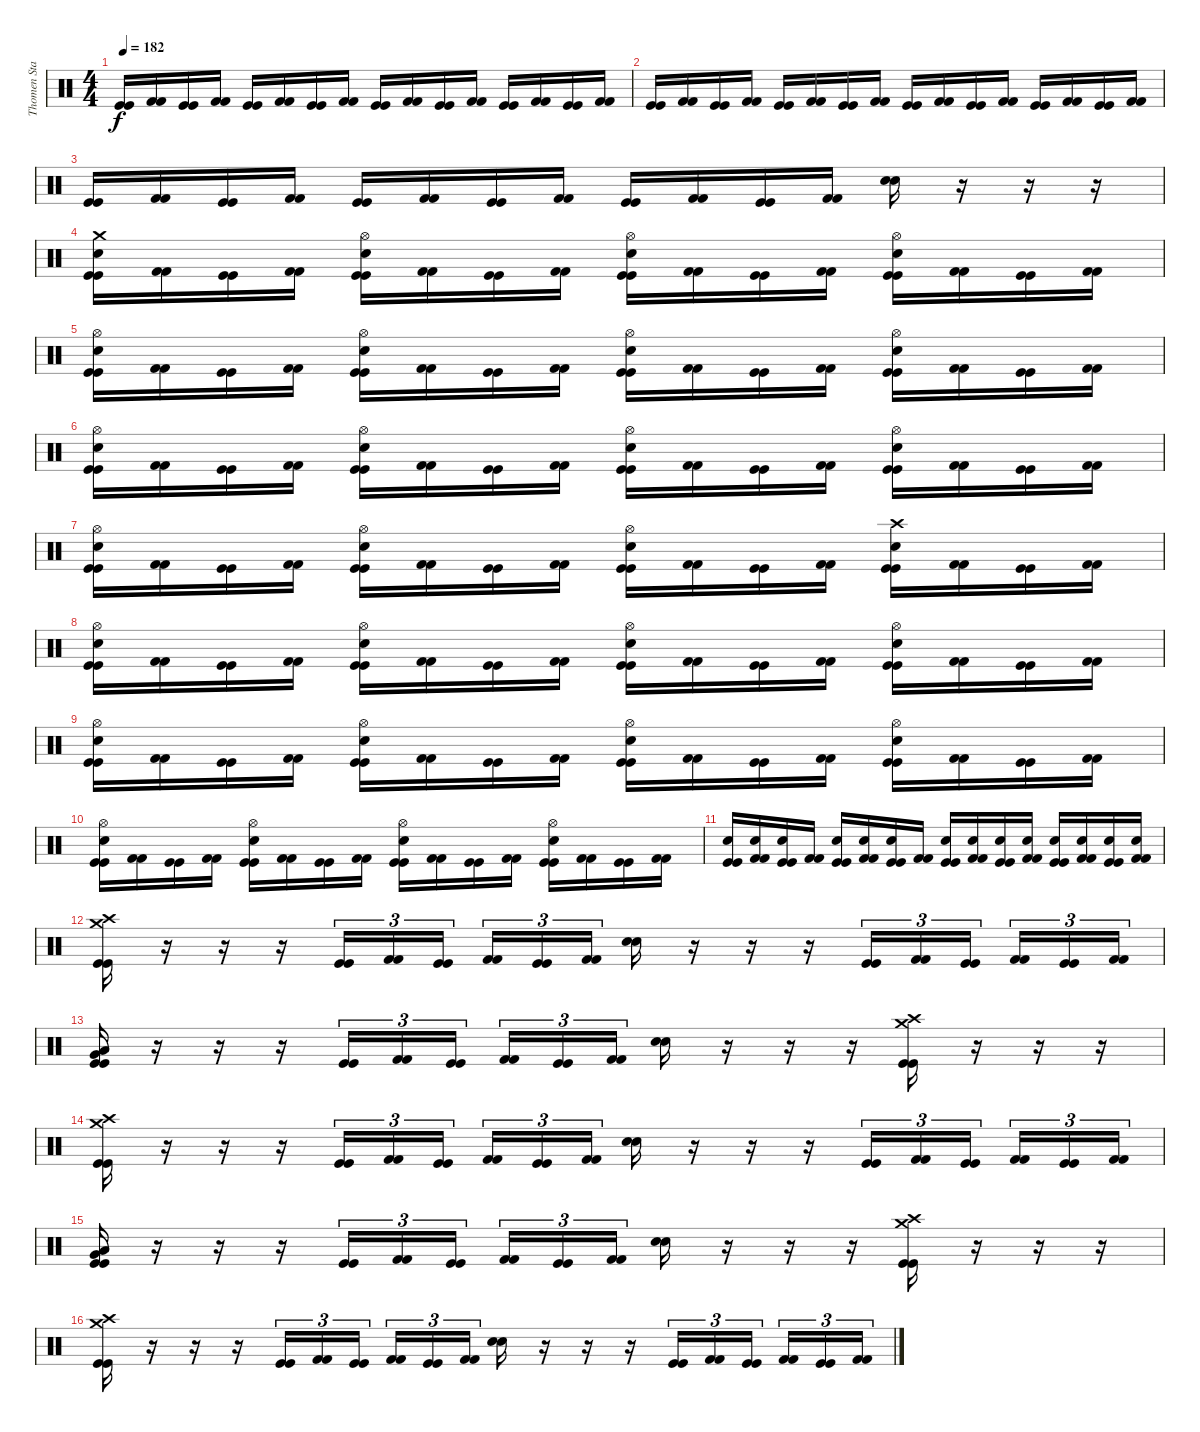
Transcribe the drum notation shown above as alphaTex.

\track ("Thomen Stauch" "Thomen Sta") {instrument percussion}
\staff {score}
\articulation defaults
\ts (4 4)
\tempo 182
\clef neutral
\ks c
("Kick (hit)" "Kick (hit)").16{dy f} ("Kick (hit) 2" "Kick (hit) 2").16 ("Kick (hit)" "Kick (hit)").16 ("Kick (hit) 2" "Kick (hit) 2").16 ("Kick (hit)" "Kick (hit)").16 ("Kick (hit) 2" "Kick (hit) 2").16 ("Kick (hit)" "Kick (hit)").16 ("Kick (hit) 2" "Kick (hit) 2").16 ("Kick (hit)" "Kick (hit)").16 ("Kick (hit) 2" "Kick (hit) 2").16 ("Kick (hit)" "Kick (hit)").16 ("Kick (hit) 2" "Kick (hit) 2").16 ("Kick (hit)" "Kick (hit)").16 ("Kick (hit) 2" "Kick (hit) 2").16 ("Kick (hit)" "Kick (hit)").16 ("Kick (hit) 2" "Kick (hit) 2").16 |
("Kick (hit)" "Kick (hit)").16 ("Kick (hit) 2" "Kick (hit) 2").16 ("Kick (hit)" "Kick (hit)").16 ("Kick (hit) 2" "Kick (hit) 2").16 ("Kick (hit)" "Kick (hit)").16 ("Kick (hit) 2" "Kick (hit) 2").16 ("Kick (hit)" "Kick (hit)").16 ("Kick (hit) 2" "Kick (hit) 2").16 ("Kick (hit)" "Kick (hit)").16 ("Kick (hit) 2" "Kick (hit) 2").16 ("Kick (hit)" "Kick (hit)").16 ("Kick (hit) 2" "Kick (hit) 2").16 ("Kick (hit)" "Kick (hit)").16 ("Kick (hit) 2" "Kick (hit) 2").16 ("Kick (hit)" "Kick (hit)").16 ("Kick (hit) 2" "Kick (hit) 2").16 |
("Kick (hit)" "Kick (hit)").16 ("Kick (hit) 2" "Kick (hit) 2").16 ("Kick (hit)" "Kick (hit)").16 ("Kick (hit) 2" "Kick (hit) 2").16 ("Kick (hit)" "Kick (hit)").16 ("Kick (hit) 2" "Kick (hit) 2").16 ("Kick (hit)" "Kick (hit)").16 ("Kick (hit) 2" "Kick (hit) 2").16 ("Kick (hit)" "Kick (hit)").16 ("Kick (hit) 2" "Kick (hit) 2").16 ("Kick (hit)" "Kick (hit)").16 ("Kick (hit) 2" "Kick (hit) 2").16 ("Snare (hit) 2" "Snare (hit) 2").16 r.16 r.16 r.16 |
("Crash medium (hit)" "Snare (hit) 2" "Kick (hit)" "Kick (hit)").16 ("Kick (hit) 2" "Kick (hit) 2").16 ("Kick (hit)" "Kick (hit)").16 ("Kick (hit) 2" "Kick (hit) 2").16 ("Hi-Hat (open)" "Snare (hit) 2" "Kick (hit)" "Kick (hit)").16 ("Kick (hit) 2" "Kick (hit) 2").16 ("Kick (hit)" "Kick (hit)").16 ("Kick (hit) 2" "Kick (hit) 2").16 ("Hi-Hat (open)" "Snare (hit) 2" "Kick (hit)" "Kick (hit)").16 ("Kick (hit) 2" "Kick (hit) 2").16 ("Kick (hit)" "Kick (hit)").16 ("Kick (hit) 2" "Kick (hit) 2").16 ("Hi-Hat (open)" "Snare (hit) 2" "Kick (hit)" "Kick (hit)").16 ("Kick (hit) 2" "Kick (hit) 2").16 ("Kick (hit)" "Kick (hit)").16 ("Kick (hit) 2" "Kick (hit) 2").16 |
("Hi-Hat (open)" "Snare (hit) 2" "Kick (hit)" "Kick (hit)").16 ("Kick (hit) 2" "Kick (hit) 2").16 ("Kick (hit)" "Kick (hit)").16 ("Kick (hit) 2" "Kick (hit) 2").16 ("Hi-Hat (open)" "Snare (hit) 2" "Kick (hit)" "Kick (hit)").16 ("Kick (hit) 2" "Kick (hit) 2").16 ("Kick (hit)" "Kick (hit)").16 ("Kick (hit) 2" "Kick (hit) 2").16 ("Hi-Hat (open)" "Snare (hit) 2" "Kick (hit)" "Kick (hit)").16 ("Kick (hit) 2" "Kick (hit) 2").16 ("Kick (hit)" "Kick (hit)").16 ("Kick (hit) 2" "Kick (hit) 2").16 ("Hi-Hat (open)" "Snare (hit) 2" "Kick (hit)" "Kick (hit)").16 ("Kick (hit) 2" "Kick (hit) 2").16 ("Kick (hit)" "Kick (hit)").16 ("Kick (hit) 2" "Kick (hit) 2").16 |
("Hi-Hat (open)" "Snare (hit) 2" "Kick (hit)" "Kick (hit)").16 ("Kick (hit) 2" "Kick (hit) 2").16 ("Kick (hit)" "Kick (hit)").16 ("Kick (hit) 2" "Kick (hit) 2").16 ("Hi-Hat (open)" "Snare (hit) 2" "Kick (hit)" "Kick (hit)").16 ("Kick (hit) 2" "Kick (hit) 2").16 ("Kick (hit)" "Kick (hit)").16 ("Kick (hit) 2" "Kick (hit) 2").16 ("Hi-Hat (open)" "Snare (hit) 2" "Kick (hit)" "Kick (hit)").16 ("Kick (hit) 2" "Kick (hit) 2").16 ("Kick (hit)" "Kick (hit)").16 ("Kick (hit) 2" "Kick (hit) 2").16 ("Hi-Hat (open)" "Snare (hit) 2" "Kick (hit)" "Kick (hit)").16 ("Kick (hit) 2" "Kick (hit) 2").16 ("Kick (hit)" "Kick (hit)").16 ("Kick (hit) 2" "Kick (hit) 2").16 |
("Hi-Hat (open)" "Snare (hit) 2" "Kick (hit)" "Kick (hit)").16 ("Kick (hit) 2" "Kick (hit) 2").16 ("Kick (hit)" "Kick (hit)").16 ("Kick (hit) 2" "Kick (hit) 2").16 ("Hi-Hat (open)" "Snare (hit) 2" "Kick (hit)" "Kick (hit)").16 ("Kick (hit) 2" "Kick (hit) 2").16 ("Kick (hit)" "Kick (hit)").16 ("Kick (hit) 2" "Kick (hit) 2").16 ("Hi-Hat (open)" "Snare (hit) 2" "Kick (hit)" "Kick (hit)").16 ("Kick (hit) 2" "Kick (hit) 2").16 ("Kick (hit)" "Kick (hit)").16 ("Kick (hit) 2" "Kick (hit) 2").16 ("Crash high (hit)" "Snare (hit) 2" "Kick (hit)" "Kick (hit)").16 ("Kick (hit) 2" "Kick (hit) 2").16 ("Kick (hit)" "Kick (hit)").16 ("Kick (hit) 2" "Kick (hit) 2").16 |
("Hi-Hat (open)" "Snare (hit) 2" "Kick (hit)" "Kick (hit)").16 ("Kick (hit) 2" "Kick (hit) 2").16 ("Kick (hit)" "Kick (hit)").16 ("Kick (hit) 2" "Kick (hit) 2").16 ("Hi-Hat (open)" "Snare (hit) 2" "Kick (hit)" "Kick (hit)").16 ("Kick (hit) 2" "Kick (hit) 2").16 ("Kick (hit)" "Kick (hit)").16 ("Kick (hit) 2" "Kick (hit) 2").16 ("Hi-Hat (open)" "Snare (hit) 2" "Kick (hit)" "Kick (hit)").16 ("Kick (hit) 2" "Kick (hit) 2").16 ("Kick (hit)" "Kick (hit)").16 ("Kick (hit) 2" "Kick (hit) 2").16 ("Hi-Hat (open)" "Snare (hit) 2" "Kick (hit)" "Kick (hit)").16 ("Kick (hit) 2" "Kick (hit) 2").16 ("Kick (hit)" "Kick (hit)").16 ("Kick (hit) 2" "Kick (hit) 2").16 |
("Hi-Hat (open)" "Snare (hit) 2" "Kick (hit)" "Kick (hit)").16 ("Kick (hit) 2" "Kick (hit) 2").16 ("Kick (hit)" "Kick (hit)").16 ("Kick (hit) 2" "Kick (hit) 2").16 ("Hi-Hat (open)" "Snare (hit) 2" "Kick (hit)" "Kick (hit)").16 ("Kick (hit) 2" "Kick (hit) 2").16 ("Kick (hit)" "Kick (hit)").16 ("Kick (hit) 2" "Kick (hit) 2").16 ("Hi-Hat (open)" "Snare (hit) 2" "Kick (hit)" "Kick (hit)").16 ("Kick (hit) 2" "Kick (hit) 2").16 ("Kick (hit)" "Kick (hit)").16 ("Kick (hit) 2" "Kick (hit) 2").16 ("Hi-Hat (open)" "Snare (hit) 2" "Kick (hit)" "Kick (hit)").16 ("Kick (hit) 2" "Kick (hit) 2").16 ("Kick (hit)" "Kick (hit)").16 ("Kick (hit) 2" "Kick (hit) 2").16 |
("Hi-Hat (open)" "Snare (hit) 2" "Kick (hit)" "Kick (hit)").16 ("Kick (hit) 2" "Kick (hit) 2").16 ("Kick (hit)" "Kick (hit)").16 ("Kick (hit) 2" "Kick (hit) 2").16 ("Hi-Hat (open)" "Snare (hit) 2" "Kick (hit)" "Kick (hit)").16 ("Kick (hit) 2" "Kick (hit) 2").16 ("Kick (hit)" "Kick (hit)").16 ("Kick (hit) 2" "Kick (hit) 2").16 ("Hi-Hat (open)" "Snare (hit) 2" "Kick (hit)" "Kick (hit)").16 ("Kick (hit) 2" "Kick (hit) 2").16 ("Kick (hit)" "Kick (hit)").16 ("Kick (hit) 2" "Kick (hit) 2").16 ("Hi-Hat (open)" "Snare (hit) 2" "Kick (hit)" "Kick (hit)").16 ("Kick (hit) 2" "Kick (hit) 2").16 ("Kick (hit)" "Kick (hit)").16 ("Kick (hit) 2" "Kick (hit) 2").16 |
("Snare (hit) 2" "Kick (hit)" "Kick (hit)").16 ("Snare (hit) 2" "Kick (hit) 2" "Kick (hit) 2").16 ("Snare (hit) 2" "Kick (hit)" "Kick (hit)").16 ("Kick (hit) 2" "Kick (hit) 2").16 ("Snare (hit) 2" "Kick (hit)" "Kick (hit)").16 ("Snare (hit) 2" "Kick (hit) 2" "Kick (hit) 2").16 ("Snare (hit) 2" "Kick (hit)" "Kick (hit)").16 ("Kick (hit) 2" "Kick (hit) 2").16 ("Snare (hit) 2" "Kick (hit)" "Kick (hit)").16 ("Snare (hit) 2" "Kick (hit) 2" "Kick (hit) 2").16 ("Snare (hit) 2" "Kick (hit)" "Kick (hit)").16 ("Snare (hit) 2" "Kick (hit) 2" "Kick (hit) 2").16 ("Snare (hit) 2" "Kick (hit)" "Kick (hit)").16 ("Snare (hit) 2" "Kick (hit) 2" "Kick (hit) 2").16 ("Snare (hit) 2" "Kick (hit)" "Kick (hit)").16 ("Snare (hit) 2" "Kick (hit) 2" "Kick (hit) 2").16 |
("Crash medium (hit)" "Crash high (hit)" "Kick (hit)" "Kick (hit)").16 r.16 r.16 r.16 ("Kick (hit)" "Kick (hit)").16{tu (3 2)} ("Kick (hit) 2" "Kick (hit) 2").16{tu (3 2)} ("Kick (hit)" "Kick (hit)").16{tu (3 2)} ("Kick (hit) 2" "Kick (hit) 2").16{tu (3 2)} ("Kick (hit)" "Kick (hit)").16{tu (3 2)} ("Kick (hit) 2" "Kick (hit) 2").16{tu (3 2)} ("Snare (hit) 2" "Snare (hit) 2").16 r.16 r.16 r.16 ("Kick (hit)" "Kick (hit)").16{tu (3 2)} ("Kick (hit) 2" "Kick (hit) 2").16{tu (3 2)} ("Kick (hit)" "Kick (hit)").16{tu (3 2)} ("Kick (hit) 2" "Kick (hit) 2").16{tu (3 2)} ("Kick (hit)" "Kick (hit)").16{tu (3 2)} ("Kick (hit) 2" "Kick (hit) 2").16{tu (3 2)} |
("Very Low Tom (hit)" "Low Tom (hit)" "Kick (hit)" "Kick (hit)").16 r.16 r.16 r.16 ("Kick (hit)" "Kick (hit)").16{tu (3 2)} ("Kick (hit) 2" "Kick (hit) 2").16{tu (3 2)} ("Kick (hit)" "Kick (hit)").16{tu (3 2)} ("Kick (hit) 2" "Kick (hit) 2").16{tu (3 2)} ("Kick (hit)" "Kick (hit)").16{tu (3 2)} ("Kick (hit) 2" "Kick (hit) 2").16{tu (3 2)} ("Snare (hit) 2" "Snare (hit) 2").16 r.16 r.16 r.16 ("Crash medium (hit)" "Crash high (hit)" "Kick (hit)" "Kick (hit)").16 r.16 r.16 r.16 |
("Crash medium (hit)" "Crash high (hit)" "Kick (hit)" "Kick (hit)").16 r.16 r.16 r.16 ("Kick (hit)" "Kick (hit)").16{tu (3 2)} ("Kick (hit) 2" "Kick (hit) 2").16{tu (3 2)} ("Kick (hit)" "Kick (hit)").16{tu (3 2)} ("Kick (hit) 2" "Kick (hit) 2").16{tu (3 2)} ("Kick (hit)" "Kick (hit)").16{tu (3 2)} ("Kick (hit) 2" "Kick (hit) 2").16{tu (3 2)} ("Snare (hit) 2" "Snare (hit) 2").16 r.16 r.16 r.16 ("Kick (hit)" "Kick (hit)").16{tu (3 2)} ("Kick (hit) 2" "Kick (hit) 2").16{tu (3 2)} ("Kick (hit)" "Kick (hit)").16{tu (3 2)} ("Kick (hit) 2" "Kick (hit) 2").16{tu (3 2)} ("Kick (hit)" "Kick (hit)").16{tu (3 2)} ("Kick (hit) 2" "Kick (hit) 2").16{tu (3 2)} |
("Very Low Tom (hit)" "Low Tom (hit)" "Kick (hit)" "Kick (hit)").16 r.16 r.16 r.16 ("Kick (hit)" "Kick (hit)").16{tu (3 2)} ("Kick (hit) 2" "Kick (hit) 2").16{tu (3 2)} ("Kick (hit)" "Kick (hit)").16{tu (3 2)} ("Kick (hit) 2" "Kick (hit) 2").16{tu (3 2)} ("Kick (hit)" "Kick (hit)").16{tu (3 2)} ("Kick (hit) 2" "Kick (hit) 2").16{tu (3 2)} ("Snare (hit) 2" "Snare (hit) 2").16 r.16 r.16 r.16 ("Crash medium (hit)" "Crash high (hit)" "Kick (hit)" "Kick (hit)").16 r.16 r.16 r.16 |
("Crash medium (hit)" "Crash high (hit)" "Kick (hit)" "Kick (hit)").16 r.16 r.16 r.16 ("Kick (hit)" "Kick (hit)").16{tu (3 2)} ("Kick (hit) 2" "Kick (hit) 2").16{tu (3 2)} ("Kick (hit)" "Kick (hit)").16{tu (3 2)} ("Kick (hit) 2" "Kick (hit) 2").16{tu (3 2)} ("Kick (hit)" "Kick (hit)").16{tu (3 2)} ("Kick (hit) 2" "Kick (hit) 2").16{tu (3 2)} ("Snare (hit) 2" "Snare (hit) 2").16 r.16 r.16 r.16 ("Kick (hit)" "Kick (hit)").16{tu (3 2)} ("Kick (hit) 2" "Kick (hit) 2").16{tu (3 2)} ("Kick (hit)" "Kick (hit)").16{tu (3 2)} ("Kick (hit) 2" "Kick (hit) 2").16{tu (3 2)} ("Kick (hit)" "Kick (hit)").16{tu (3 2)} ("Kick (hit) 2" "Kick (hit) 2").16{tu (3 2)}
